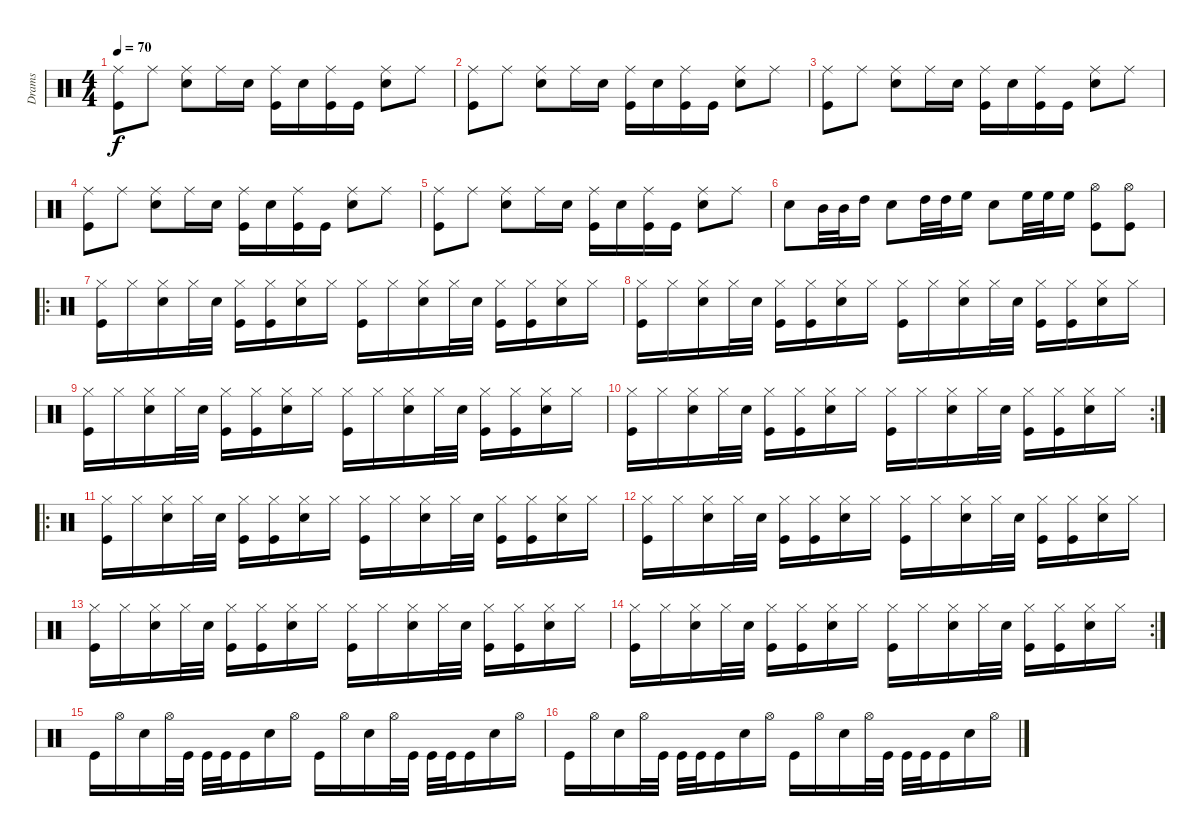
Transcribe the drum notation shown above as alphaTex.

\track ("Drams" "Drams") {instrument percussion}
\staff {score}
\articulation defaults
\ts (4 4)
\tempo 70
\clef neutral
\ks aminor
("Kick (hit)" "Ride (middle)").8{dy f} "Ride (middle)".8 ("Electric Snare (hit)" "Ride (middle)").8 "Ride (middle)".16 "Electric Snare (hit)".16 ("Kick (hit)" "Ride (middle)").16 "Electric Snare (hit)".16 ("Kick (hit)" "Ride (middle)").16 "Kick (hit)".16 ("Electric Snare (hit)" "Ride (middle)").8 "Ride (middle)".8 |
("Kick (hit)" "Ride (middle)").8 "Ride (middle)".8 ("Electric Snare (hit)" "Ride (middle)").8 "Ride (middle)".16 "Electric Snare (hit)".16 ("Kick (hit)" "Ride (middle)").16 "Electric Snare (hit)".16 ("Kick (hit)" "Ride (middle)").16 "Kick (hit)".16 ("Electric Snare (hit)" "Ride (middle)").8 "Ride (middle)".8 |
("Kick (hit)" "Ride (middle)").8 "Ride (middle)".8 ("Electric Snare (hit)" "Ride (middle)").8 "Ride (middle)".16 "Electric Snare (hit)".16 ("Kick (hit)" "Ride (middle)").16 "Electric Snare (hit)".16 ("Kick (hit)" "Ride (middle)").16 "Kick (hit)".16 ("Electric Snare (hit)" "Ride (middle)").8 "Ride (middle)".8 |
("Kick (hit)" "Ride (middle)").8 "Ride (middle)".8 ("Electric Snare (hit)" "Ride (middle)").8 "Ride (middle)".16 "Electric Snare (hit)".16 ("Kick (hit)" "Ride (middle)").16 "Electric Snare (hit)".16 ("Kick (hit)" "Ride (middle)").16 "Kick (hit)".16 ("Electric Snare (hit)" "Ride (middle)").8 "Ride (middle)".8 |
("Kick (hit)" "Ride (middle)").8 "Ride (middle)".8 ("Electric Snare (hit)" "Ride (middle)").8 "Ride (middle)".16 "Electric Snare (hit)".16 ("Kick (hit)" "Ride (middle)").16 "Electric Snare (hit)".16 ("Kick (hit)" "Ride (middle)").16 "Kick (hit)".16 ("Electric Snare (hit)" "Ride (middle)").8 "Ride (middle)".8 |
"Electric Snare (hit)".8 "Mid Tom (hit)".32 "Mid Tom (hit)".32 "High Tom (hit)".16 "Electric Snare (hit)".8 "High Tom (hit)".32 "High Tom (hit)".32 "High Floor Tom (hit)".16 "Electric Snare (hit)".8 "High Floor Tom (hit)".32 "High Floor Tom (hit)".32 "High Floor Tom (hit)".16 ("Hi-Hat (open)" "Kick (hit)").8 ("Hi-Hat (open)" "Kick (hit)").8 |
\ro
("Kick (hit)" "Hi-Hat (closed)").16 "Hi-Hat (closed)".16 ("Electric Snare (hit)" "Hi-Hat (closed)").16 "Hi-Hat (closed)".32 "Electric Snare (hit)".32 ("Kick (hit)" "Hi-Hat (closed)").16 ("Hi-Hat (closed)" "Kick (hit)").16 ("Hi-Hat (closed)" "Electric Snare (hit)").16 "Hi-Hat (closed)".16 ("Kick (hit)" "Hi-Hat (closed)").16 "Hi-Hat (closed)".16 ("Electric Snare (hit)" "Hi-Hat (closed)").16 "Hi-Hat (closed)".32 "Electric Snare (hit)".32 ("Kick (hit)" "Hi-Hat (closed)").16 ("Kick (hit)" "Hi-Hat (closed)").16 ("Electric Snare (hit)" "Hi-Hat (closed)").16 "Hi-Hat (closed)".16 |
("Kick (hit)" "Hi-Hat (closed)").16 "Hi-Hat (closed)".16 ("Electric Snare (hit)" "Hi-Hat (closed)").16 "Hi-Hat (closed)".32 "Electric Snare (hit)".32 ("Kick (hit)" "Hi-Hat (closed)").16 ("Hi-Hat (closed)" "Kick (hit)").16 ("Hi-Hat (closed)" "Electric Snare (hit)").16 "Hi-Hat (closed)".16 ("Kick (hit)" "Hi-Hat (closed)").16 "Hi-Hat (closed)".16 ("Electric Snare (hit)" "Hi-Hat (closed)").16 "Hi-Hat (closed)".32 "Electric Snare (hit)".32 ("Kick (hit)" "Hi-Hat (closed)").16 ("Kick (hit)" "Hi-Hat (closed)").16 ("Electric Snare (hit)" "Hi-Hat (closed)").16 "Hi-Hat (closed)".16 |
("Kick (hit)" "Hi-Hat (closed)").16 "Hi-Hat (closed)".16 ("Electric Snare (hit)" "Hi-Hat (closed)").16 "Hi-Hat (closed)".32 "Electric Snare (hit)".32 ("Kick (hit)" "Hi-Hat (closed)").16 ("Hi-Hat (closed)" "Kick (hit)").16 ("Hi-Hat (closed)" "Electric Snare (hit)").16 "Hi-Hat (closed)".16 ("Kick (hit)" "Hi-Hat (closed)").16 "Hi-Hat (closed)".16 ("Electric Snare (hit)" "Hi-Hat (closed)").16 "Hi-Hat (closed)".32 "Electric Snare (hit)".32 ("Kick (hit)" "Hi-Hat (closed)").16 ("Kick (hit)" "Hi-Hat (closed)").16 ("Electric Snare (hit)" "Hi-Hat (closed)").16 "Hi-Hat (closed)".16 |
\rc 2
("Kick (hit)" "Hi-Hat (closed)").16 "Hi-Hat (closed)".16 ("Electric Snare (hit)" "Hi-Hat (closed)").16 "Hi-Hat (closed)".32 "Electric Snare (hit)".32 ("Kick (hit)" "Hi-Hat (closed)").16 ("Hi-Hat (closed)" "Kick (hit)").16 ("Hi-Hat (closed)" "Electric Snare (hit)").16 "Hi-Hat (closed)".16 ("Kick (hit)" "Hi-Hat (closed)").16 "Hi-Hat (closed)".16 ("Electric Snare (hit)" "Hi-Hat (closed)").16 "Hi-Hat (closed)".32 "Electric Snare (hit)".32 ("Kick (hit)" "Hi-Hat (closed)").16 ("Kick (hit)" "Hi-Hat (closed)").16 ("Electric Snare (hit)" "Hi-Hat (closed)").16 "Hi-Hat (closed)".16 |
\ro
("Kick (hit)" "Hi-Hat (closed)").16 "Hi-Hat (closed)".16 ("Electric Snare (hit)" "Hi-Hat (closed)").16 "Hi-Hat (closed)".32 "Electric Snare (hit)".32 ("Kick (hit)" "Hi-Hat (closed)").16 ("Hi-Hat (closed)" "Kick (hit)").16 ("Hi-Hat (closed)" "Electric Snare (hit)").16 "Hi-Hat (closed)".16 ("Kick (hit)" "Hi-Hat (closed)").16 "Hi-Hat (closed)".16 ("Electric Snare (hit)" "Hi-Hat (closed)").16 "Hi-Hat (closed)".32 "Electric Snare (hit)".32 ("Kick (hit)" "Hi-Hat (closed)").16 ("Kick (hit)" "Hi-Hat (closed)").16 ("Electric Snare (hit)" "Hi-Hat (closed)").16 "Hi-Hat (closed)".16 |
("Kick (hit)" "Hi-Hat (closed)").16 "Hi-Hat (closed)".16 ("Electric Snare (hit)" "Hi-Hat (closed)").16 "Hi-Hat (closed)".32 "Electric Snare (hit)".32 ("Kick (hit)" "Hi-Hat (closed)").16 ("Hi-Hat (closed)" "Kick (hit)").16 ("Hi-Hat (closed)" "Electric Snare (hit)").16 "Hi-Hat (closed)".16 ("Kick (hit)" "Hi-Hat (closed)").16 "Hi-Hat (closed)".16 ("Electric Snare (hit)" "Hi-Hat (closed)").16 "Hi-Hat (closed)".32 "Electric Snare (hit)".32 ("Kick (hit)" "Hi-Hat (closed)").16 ("Kick (hit)" "Hi-Hat (closed)").16 ("Electric Snare (hit)" "Hi-Hat (closed)").16 "Hi-Hat (closed)".16 |
("Kick (hit)" "Hi-Hat (closed)").16 "Hi-Hat (closed)".16 ("Electric Snare (hit)" "Hi-Hat (closed)").16 "Hi-Hat (closed)".32 "Electric Snare (hit)".32 ("Kick (hit)" "Hi-Hat (closed)").16 ("Hi-Hat (closed)" "Kick (hit)").16 ("Hi-Hat (closed)" "Electric Snare (hit)").16 "Hi-Hat (closed)".16 ("Kick (hit)" "Hi-Hat (closed)").16 "Hi-Hat (closed)".16 ("Electric Snare (hit)" "Hi-Hat (closed)").16 "Hi-Hat (closed)".32 "Electric Snare (hit)".32 ("Kick (hit)" "Hi-Hat (closed)").16 ("Kick (hit)" "Hi-Hat (closed)").16 ("Electric Snare (hit)" "Hi-Hat (closed)").16 "Hi-Hat (closed)".16 |
\rc 2
("Kick (hit)" "Hi-Hat (closed)").16 "Hi-Hat (closed)".16 ("Electric Snare (hit)" "Hi-Hat (closed)").16 "Hi-Hat (closed)".32 "Electric Snare (hit)".32 ("Kick (hit)" "Hi-Hat (closed)").16 ("Hi-Hat (closed)" "Kick (hit)").16 ("Hi-Hat (closed)" "Electric Snare (hit)").16 "Hi-Hat (closed)".16 ("Kick (hit)" "Hi-Hat (closed)").16 "Hi-Hat (closed)".16 ("Electric Snare (hit)" "Hi-Hat (closed)").16 "Hi-Hat (closed)".32 "Electric Snare (hit)".32 ("Kick (hit)" "Hi-Hat (closed)").16 ("Kick (hit)" "Hi-Hat (closed)").16 ("Electric Snare (hit)" "Hi-Hat (closed)").16 "Hi-Hat (closed)".16 |
"Kick (hit)".16 "Hi-Hat (open)".16 "Electric Snare (hit)".16 "Hi-Hat (open)".32 "Kick (hit)".32 "Kick (hit)".32 "Kick (hit)".32 "Kick (hit)".16 "Electric Snare (hit)".16 "Hi-Hat (open)".16 "Kick (hit)".16 "Hi-Hat (open)".16 "Electric Snare (hit)".16 "Hi-Hat (open)".32 "Kick (hit)".32 "Kick (hit)".32 "Kick (hit)".32 "Kick (hit)".16 "Electric Snare (hit)".16 "Hi-Hat (open)".16 |
"Kick (hit)".16 "Hi-Hat (open)".16 "Electric Snare (hit)".16 "Hi-Hat (open)".32 "Kick (hit)".32 "Kick (hit)".32 "Kick (hit)".32 "Kick (hit)".16 "Electric Snare (hit)".16 "Hi-Hat (open)".16 "Kick (hit)".16 "Hi-Hat (open)".16 "Electric Snare (hit)".16 "Hi-Hat (open)".32 "Kick (hit)".32 "Kick (hit)".32 "Kick (hit)".32 "Kick (hit)".16 "Electric Snare (hit)".16 "Hi-Hat (open)".16
